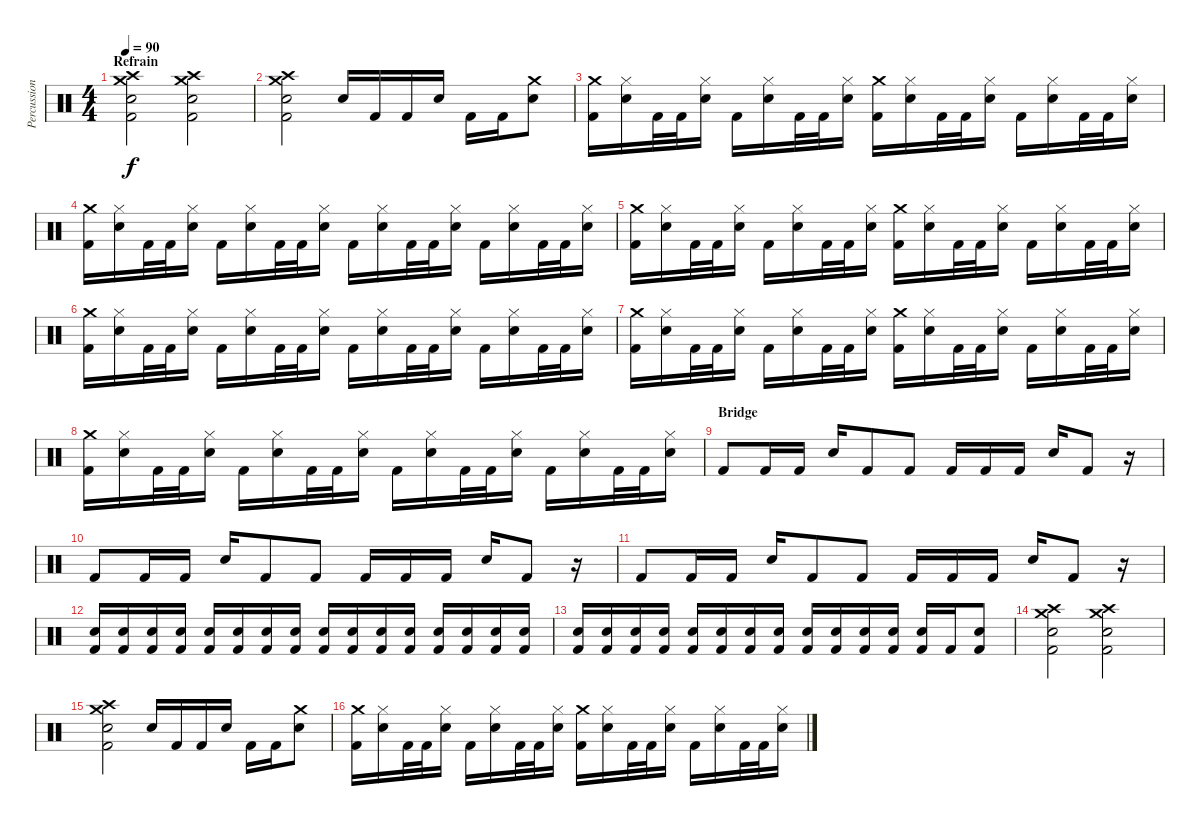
\track ("Percussion" "Percussion") {instrument percussion}
\staff {score}
\articulation defaults
\ts (4 4)
\section ("" "Refrain")
\tempo 90
\clef neutral
\ks c
("Crash medium (hit)" "Crash high (hit)" "Snare (hit) 2" "Kick (hit) 2").2{dy f} ("Crash medium (hit)" "Crash high (hit)" "Snare (hit) 2" "Kick (hit) 2").2 |
("Crash medium (hit)" "Crash high (hit)" "Snare (hit) 2" "Kick (hit) 2").2 "Snare (hit) 2".16 "Kick (hit) 2".16 "Kick (hit) 2".16 "Snare (hit) 2".16 "Kick (hit) 2".16 "Kick (hit) 2".16 ("Crash medium (hit)" "Snare (hit) 2").8 |
("Crash medium (hit)" "Kick (hit) 2").16 ("Hi-Hat (closed)" "Snare (hit) 2").16 "Kick (hit) 2".32 "Kick (hit) 2".32 ("Hi-Hat (closed)" "Snare (hit) 2").16 "Kick (hit) 2".16 ("Hi-Hat (closed)" "Snare (hit) 2").16 "Kick (hit) 2".32 "Kick (hit) 2".32 ("Hi-Hat (closed)" "Snare (hit) 2").16 ("Crash medium (hit)" "Kick (hit) 2").16 ("Hi-Hat (closed)" "Snare (hit) 2").16 "Kick (hit) 2".32 "Kick (hit) 2".32 ("Hi-Hat (closed)" "Snare (hit) 2").16 "Kick (hit) 2".16 ("Hi-Hat (closed)" "Snare (hit) 2").16 "Kick (hit) 2".32 "Kick (hit) 2".32 ("Hi-Hat (closed)" "Snare (hit) 2").16 |
("Crash medium (hit)" "Kick (hit) 2").16 ("Hi-Hat (closed)" "Snare (hit) 2").16 "Kick (hit) 2".32 "Kick (hit) 2".32 ("Hi-Hat (closed)" "Snare (hit) 2").16 "Kick (hit) 2".16 ("Hi-Hat (closed)" "Snare (hit) 2").16 "Kick (hit) 2".32 "Kick (hit) 2".32 ("Hi-Hat (closed)" "Snare (hit) 2").16 "Kick (hit) 2".16 ("Hi-Hat (closed)" "Snare (hit) 2").16 "Kick (hit) 2".32 "Kick (hit) 2".32 ("Hi-Hat (closed)" "Snare (hit) 2").16 "Kick (hit) 2".16 ("Hi-Hat (closed)" "Snare (hit) 2").16 "Kick (hit) 2".32 "Kick (hit) 2".32 ("Hi-Hat (closed)" "Snare (hit) 2").16 |
("Crash medium (hit)" "Kick (hit) 2").16 ("Hi-Hat (closed)" "Snare (hit) 2").16 "Kick (hit) 2".32 "Kick (hit) 2".32 ("Hi-Hat (closed)" "Snare (hit) 2").16 "Kick (hit) 2".16 ("Hi-Hat (closed)" "Snare (hit) 2").16 "Kick (hit) 2".32 "Kick (hit) 2".32 ("Hi-Hat (closed)" "Snare (hit) 2").16 ("Crash medium (hit)" "Kick (hit) 2").16 ("Hi-Hat (closed)" "Snare (hit) 2").16 "Kick (hit) 2".32 "Kick (hit) 2".32 ("Hi-Hat (closed)" "Snare (hit) 2").16 "Kick (hit) 2".16 ("Hi-Hat (closed)" "Snare (hit) 2").16 "Kick (hit) 2".32 "Kick (hit) 2".32 ("Hi-Hat (closed)" "Snare (hit) 2").16 |
("Crash medium (hit)" "Kick (hit) 2").16 ("Hi-Hat (closed)" "Snare (hit) 2").16 "Kick (hit) 2".32 "Kick (hit) 2".32 ("Hi-Hat (closed)" "Snare (hit) 2").16 "Kick (hit) 2".16 ("Hi-Hat (closed)" "Snare (hit) 2").16 "Kick (hit) 2".32 "Kick (hit) 2".32 ("Hi-Hat (closed)" "Snare (hit) 2").16 "Kick (hit) 2".16 ("Hi-Hat (closed)" "Snare (hit) 2").16 "Kick (hit) 2".32 "Kick (hit) 2".32 ("Hi-Hat (closed)" "Snare (hit) 2").16 "Kick (hit) 2".16 ("Hi-Hat (closed)" "Snare (hit) 2").16 "Kick (hit) 2".32 "Kick (hit) 2".32 ("Hi-Hat (closed)" "Snare (hit) 2").16 |
("Crash medium (hit)" "Kick (hit) 2").16 ("Hi-Hat (closed)" "Snare (hit) 2").16 "Kick (hit) 2".32 "Kick (hit) 2".32 ("Hi-Hat (closed)" "Snare (hit) 2").16 "Kick (hit) 2".16 ("Hi-Hat (closed)" "Snare (hit) 2").16 "Kick (hit) 2".32 "Kick (hit) 2".32 ("Hi-Hat (closed)" "Snare (hit) 2").16 ("Crash medium (hit)" "Kick (hit) 2").16 ("Hi-Hat (closed)" "Snare (hit) 2").16 "Kick (hit) 2".32 "Kick (hit) 2".32 ("Hi-Hat (closed)" "Snare (hit) 2").16 "Kick (hit) 2".16 ("Hi-Hat (closed)" "Snare (hit) 2").16 "Kick (hit) 2".32 "Kick (hit) 2".32 ("Hi-Hat (closed)" "Snare (hit) 2").16 |
("Crash medium (hit)" "Kick (hit) 2").16 ("Hi-Hat (closed)" "Snare (hit) 2").16 "Kick (hit) 2".32 "Kick (hit) 2".32 ("Hi-Hat (closed)" "Snare (hit) 2").16 "Kick (hit) 2".16 ("Hi-Hat (closed)" "Snare (hit) 2").16 "Kick (hit) 2".32 "Kick (hit) 2".32 ("Hi-Hat (closed)" "Snare (hit) 2").16 "Kick (hit) 2".16 ("Hi-Hat (closed)" "Snare (hit) 2").16 "Kick (hit) 2".32 "Kick (hit) 2".32 ("Hi-Hat (closed)" "Snare (hit) 2").16 "Kick (hit) 2".16 ("Hi-Hat (closed)" "Snare (hit) 2").16 "Kick (hit) 2".32 "Kick (hit) 2".32 ("Hi-Hat (closed)" "Snare (hit) 2").16 |
\section ("" "Bridge")
"Kick (hit) 2".8 "Kick (hit) 2".16 "Kick (hit) 2".16 "Snare (hit) 2".16 "Kick (hit) 2".8 "Kick (hit) 2".8 "Kick (hit) 2".16 "Kick (hit) 2".16 "Kick (hit) 2".16 "Snare (hit) 2".16 "Kick (hit) 2".8 r.16 |
"Kick (hit) 2".8 "Kick (hit) 2".16 "Kick (hit) 2".16 "Snare (hit) 2".16 "Kick (hit) 2".8 "Kick (hit) 2".8 "Kick (hit) 2".16 "Kick (hit) 2".16 "Kick (hit) 2".16 "Snare (hit) 2".16 "Kick (hit) 2".8 r.16 |
"Kick (hit) 2".8 "Kick (hit) 2".16 "Kick (hit) 2".16 "Snare (hit) 2".16 "Kick (hit) 2".8 "Kick (hit) 2".8 "Kick (hit) 2".16 "Kick (hit) 2".16 "Kick (hit) 2".16 "Snare (hit) 2".16 "Kick (hit) 2".8 r.16 |
("Snare (hit) 2" "Kick (hit) 2").16 ("Snare (hit) 2" "Kick (hit) 2").16 ("Snare (hit) 2" "Kick (hit) 2").16 ("Snare (hit) 2" "Kick (hit) 2").16 ("Snare (hit) 2" "Kick (hit) 2").16 ("Snare (hit) 2" "Kick (hit) 2").16 ("Snare (hit) 2" "Kick (hit) 2").16 ("Snare (hit) 2" "Kick (hit) 2").16 ("Snare (hit) 2" "Kick (hit) 2").16 ("Snare (hit) 2" "Kick (hit) 2").16 ("Snare (hit) 2" "Kick (hit) 2").16 ("Snare (hit) 2" "Kick (hit) 2").16 ("Snare (hit) 2" "Kick (hit) 2").16 ("Snare (hit) 2" "Kick (hit) 2").16 ("Snare (hit) 2" "Kick (hit) 2").16 ("Snare (hit) 2" "Kick (hit) 2").16 |
("Snare (hit) 2" "Kick (hit) 2").16 ("Snare (hit) 2" "Kick (hit) 2").16 ("Snare (hit) 2" "Kick (hit) 2").16 ("Snare (hit) 2" "Kick (hit) 2").16 ("Snare (hit) 2" "Kick (hit) 2").16 ("Snare (hit) 2" "Kick (hit) 2").16 ("Snare (hit) 2" "Kick (hit) 2").16 ("Snare (hit) 2" "Kick (hit) 2").16 ("Snare (hit) 2" "Kick (hit) 2").16 ("Snare (hit) 2" "Kick (hit) 2").16 ("Snare (hit) 2" "Kick (hit) 2").16 ("Snare (hit) 2" "Kick (hit) 2").16 ("Snare (hit) 2" "Kick (hit) 2").16 "Kick (hit) 2".16 ("Snare (hit) 2" "Kick (hit) 2").8 |
("Crash medium (hit)" "Crash high (hit)" "Snare (hit) 2" "Kick (hit) 2").2 ("Crash medium (hit)" "Crash high (hit)" "Snare (hit) 2" "Kick (hit) 2").2 |
("Crash medium (hit)" "Crash high (hit)" "Snare (hit) 2" "Kick (hit) 2").2 "Snare (hit) 2".16 "Kick (hit) 2".16 "Kick (hit) 2".16 "Snare (hit) 2".16 "Kick (hit) 2".16 "Kick (hit) 2".16 ("Crash medium (hit)" "Snare (hit) 2").8 |
("Crash medium (hit)" "Kick (hit) 2").16 ("Hi-Hat (closed)" "Snare (hit) 2").16 "Kick (hit) 2".32 "Kick (hit) 2".32 ("Hi-Hat (closed)" "Snare (hit) 2").16 "Kick (hit) 2".16 ("Hi-Hat (closed)" "Snare (hit) 2").16 "Kick (hit) 2".32 "Kick (hit) 2".32 ("Hi-Hat (closed)" "Snare (hit) 2").16 ("Crash medium (hit)" "Kick (hit) 2").16 ("Hi-Hat (closed)" "Snare (hit) 2").16 "Kick (hit) 2".32 "Kick (hit) 2".32 ("Hi-Hat (closed)" "Snare (hit) 2").16 "Kick (hit) 2".16 ("Hi-Hat (closed)" "Snare (hit) 2").16 "Kick (hit) 2".32 "Kick (hit) 2".32 ("Hi-Hat (closed)" "Snare (hit) 2").16
